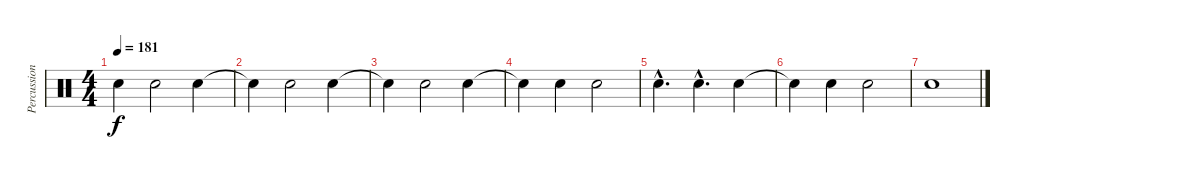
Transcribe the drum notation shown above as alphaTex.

\track ("Percussion" "Percussion") {instrument percussion}
\staff {score}
\articulation defaults
\ts (4 4)
\tempo 181
\clef neutral
\ks c "Hand Clap (hit)"{t}.4{dy f} "Hand Clap (hit)".2 "Hand Clap (hit)".4
|
"Hand Clap (hit)"{t}.4 "Hand Clap (hit)".2 "Hand Clap (hit)".4 |
"Hand Clap (hit)"{t}.4 "Hand Clap (hit)".2 "Hand Clap (hit)".4 |
"Hand Clap (hit)"{t}.4 "Hand Clap (hit)".4 "Hand Clap (hit)".2 |
"Hand Clap (hit)"{hac}.4{d} "Hand Clap (hit)"{hac}.4{d} "Hand Clap (hit)".4 |
"Snare (hit)"{t}.4 "Hand Clap (hit)".4 "Hand Clap (hit)".2 |
"Hand Clap (hit)".1
